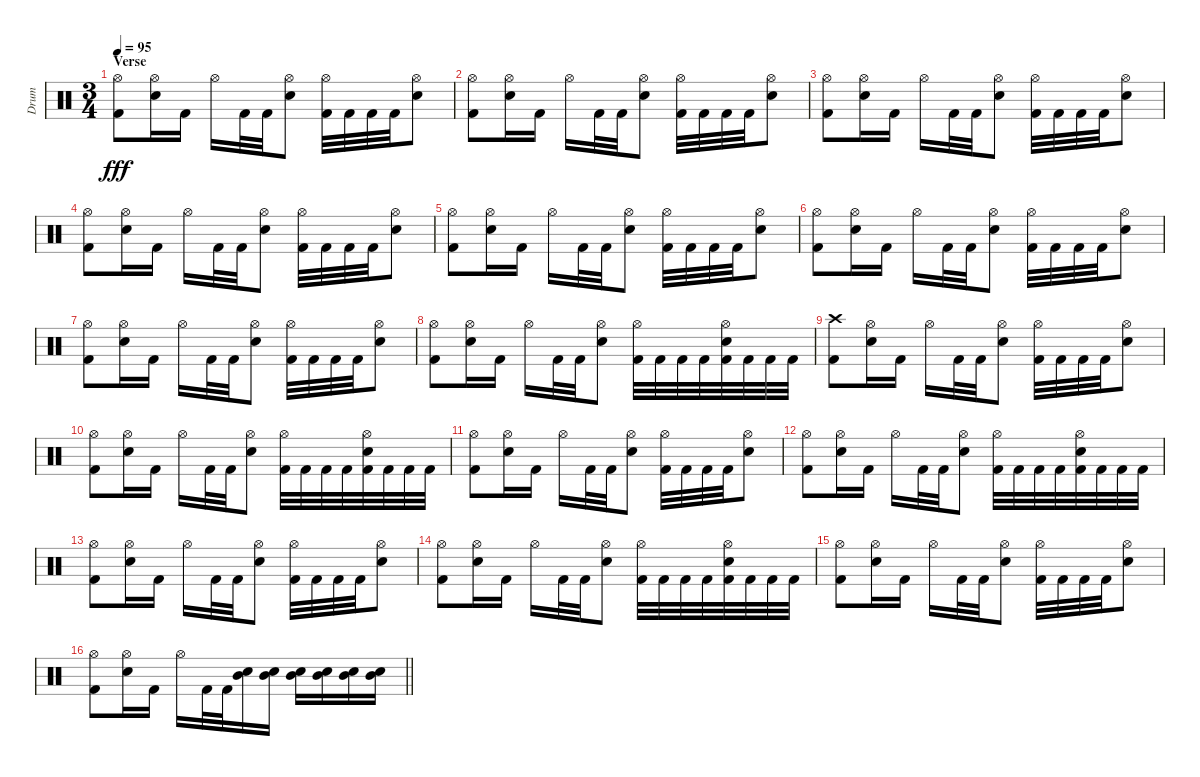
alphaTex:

\track ("Drum" "Drum") {instrument percussion}
\staff {score}
\articulation defaults
\ts (3 4)
\section ("" "Verse")
\tempo 95
\clef neutral
\ks c
("Hi-Hat (open)" "Kick (hit) 2").8{dy fff} ("Hi-Hat (open)" "Electric Snare (hit)").16 "Kick (hit) 2".16 "Hi-Hat (open)".16 "Kick (hit) 2".32 "Kick (hit) 2".32 ("Hi-Hat (open)" "Electric Snare (hit)").8 ("Hi-Hat (open)" "Kick (hit) 2").32 "Kick (hit) 2".32 "Kick (hit) 2".32 "Kick (hit) 2".32 ("Hi-Hat (open)" "Electric Snare (hit)").8 |
("Hi-Hat (open)" "Kick (hit) 2").8 ("Hi-Hat (open)" "Electric Snare (hit)").16 "Kick (hit) 2".16 "Hi-Hat (open)".16 "Kick (hit) 2".32 "Kick (hit) 2".32 ("Hi-Hat (open)" "Electric Snare (hit)").8 ("Hi-Hat (open)" "Kick (hit) 2").32 "Kick (hit) 2".32 "Kick (hit) 2".32 "Kick (hit) 2".32 ("Hi-Hat (open)" "Electric Snare (hit)").8 |
("Hi-Hat (open)" "Kick (hit) 2").8 ("Hi-Hat (open)" "Electric Snare (hit)").16 "Kick (hit) 2".16 "Hi-Hat (open)".16 "Kick (hit) 2".32 "Kick (hit) 2".32 ("Hi-Hat (open)" "Electric Snare (hit)").8 ("Hi-Hat (open)" "Kick (hit) 2").32 "Kick (hit) 2".32 "Kick (hit) 2".32 "Kick (hit) 2".32 ("Hi-Hat (open)" "Electric Snare (hit)").8 |
("Hi-Hat (open)" "Kick (hit) 2").8 ("Hi-Hat (open)" "Electric Snare (hit)").16 "Kick (hit) 2".16 "Hi-Hat (open)".16 "Kick (hit) 2".32 "Kick (hit) 2".32 ("Hi-Hat (open)" "Electric Snare (hit)").8 ("Hi-Hat (open)" "Kick (hit) 2").32 "Kick (hit) 2".32 "Kick (hit) 2".32 "Kick (hit) 2".32 ("Hi-Hat (open)" "Electric Snare (hit)").8 |
("Hi-Hat (open)" "Kick (hit) 2").8 ("Hi-Hat (open)" "Electric Snare (hit)").16 "Kick (hit) 2".16 "Hi-Hat (open)".16 "Kick (hit) 2".32 "Kick (hit) 2".32 ("Hi-Hat (open)" "Electric Snare (hit)").8 ("Hi-Hat (open)" "Kick (hit) 2").32 "Kick (hit) 2".32 "Kick (hit) 2".32 "Kick (hit) 2".32 ("Hi-Hat (open)" "Electric Snare (hit)").8 |
("Hi-Hat (open)" "Kick (hit) 2").8 ("Hi-Hat (open)" "Electric Snare (hit)").16 "Kick (hit) 2".16 "Hi-Hat (open)".16 "Kick (hit) 2".32 "Kick (hit) 2".32 ("Hi-Hat (open)" "Electric Snare (hit)").8 ("Hi-Hat (open)" "Kick (hit) 2").32 "Kick (hit) 2".32 "Kick (hit) 2".32 "Kick (hit) 2".32 ("Hi-Hat (open)" "Electric Snare (hit)").8 |
("Hi-Hat (open)" "Kick (hit) 2").8 ("Hi-Hat (open)" "Electric Snare (hit)").16 "Kick (hit) 2".16 "Hi-Hat (open)".16 "Kick (hit) 2".32 "Kick (hit) 2".32 ("Hi-Hat (open)" "Electric Snare (hit)").8 ("Hi-Hat (open)" "Kick (hit) 2").32 "Kick (hit) 2".32 "Kick (hit) 2".32 "Kick (hit) 2".32 ("Hi-Hat (open)" "Electric Snare (hit)").8 |
("Hi-Hat (open)" "Kick (hit) 2").8 ("Hi-Hat (open)" "Electric Snare (hit)").16 "Kick (hit) 2".16 "Hi-Hat (open)".16 "Kick (hit) 2".32 "Kick (hit) 2".32 ("Hi-Hat (open)" "Electric Snare (hit)").8 ("Hi-Hat (open)" "Kick (hit) 2").32 "Kick (hit) 2".32 "Kick (hit) 2".32 "Kick (hit) 2".32 ("Hi-Hat (open)" "Electric Snare (hit)" "Kick (hit) 2").32 "Kick (hit) 2".32 "Kick (hit) 2".32 "Kick (hit) 2".32 |
("Crash high (hit)" "Kick (hit) 2").8 ("Hi-Hat (open)" "Electric Snare (hit)").16 "Kick (hit) 2".16 "Hi-Hat (open)".16 "Kick (hit) 2".32 "Kick (hit) 2".32 ("Hi-Hat (open)" "Electric Snare (hit)").8 ("Hi-Hat (open)" "Kick (hit) 2").32 "Kick (hit) 2".32 "Kick (hit) 2".32 "Kick (hit) 2".32 ("Hi-Hat (open)" "Electric Snare (hit)").8 |
("Hi-Hat (open)" "Kick (hit) 2").8 ("Hi-Hat (open)" "Electric Snare (hit)").16 "Kick (hit) 2".16 "Hi-Hat (open)".16 "Kick (hit) 2".32 "Kick (hit) 2".32 ("Hi-Hat (open)" "Electric Snare (hit)").8 ("Hi-Hat (open)" "Kick (hit) 2").32 "Kick (hit) 2".32 "Kick (hit) 2".32 "Kick (hit) 2".32 ("Hi-Hat (open)" "Electric Snare (hit)" "Kick (hit) 2").32 "Kick (hit) 2".32 "Kick (hit) 2".32 "Kick (hit) 2".32 |
("Hi-Hat (open)" "Kick (hit) 2").8 ("Hi-Hat (open)" "Electric Snare (hit)").16 "Kick (hit) 2".16 "Hi-Hat (open)".16 "Kick (hit) 2".32 "Kick (hit) 2".32 ("Hi-Hat (open)" "Electric Snare (hit)").8 ("Hi-Hat (open)" "Kick (hit) 2").32 "Kick (hit) 2".32 "Kick (hit) 2".32 "Kick (hit) 2".32 ("Hi-Hat (open)" "Electric Snare (hit)").8 |
("Hi-Hat (open)" "Kick (hit) 2").8 ("Hi-Hat (open)" "Electric Snare (hit)").16 "Kick (hit) 2".16 "Hi-Hat (open)".16 "Kick (hit) 2".32 "Kick (hit) 2".32 ("Hi-Hat (open)" "Electric Snare (hit)").8 ("Hi-Hat (open)" "Kick (hit) 2").32 "Kick (hit) 2".32 "Kick (hit) 2".32 "Kick (hit) 2".32 ("Hi-Hat (open)" "Electric Snare (hit)" "Kick (hit) 2").32 "Kick (hit) 2".32 "Kick (hit) 2".32 "Kick (hit) 2".32 |
("Hi-Hat (open)" "Kick (hit) 2").8 ("Hi-Hat (open)" "Electric Snare (hit)").16 "Kick (hit) 2".16 "Hi-Hat (open)".16 "Kick (hit) 2".32 "Kick (hit) 2".32 ("Hi-Hat (open)" "Electric Snare (hit)").8 ("Hi-Hat (open)" "Kick (hit) 2").32 "Kick (hit) 2".32 "Kick (hit) 2".32 "Kick (hit) 2".32 ("Hi-Hat (open)" "Electric Snare (hit)").8 |
("Hi-Hat (open)" "Kick (hit) 2").8 ("Hi-Hat (open)" "Electric Snare (hit)").16 "Kick (hit) 2".16 "Hi-Hat (open)".16 "Kick (hit) 2".32 "Kick (hit) 2".32 ("Hi-Hat (open)" "Electric Snare (hit)").8 ("Hi-Hat (open)" "Kick (hit) 2").32 "Kick (hit) 2".32 "Kick (hit) 2".32 "Kick (hit) 2".32 ("Hi-Hat (open)" "Electric Snare (hit)" "Kick (hit) 2").32 "Kick (hit) 2".32 "Kick (hit) 2".32 "Kick (hit) 2".32 |
("Hi-Hat (open)" "Kick (hit) 2").8 ("Hi-Hat (open)" "Electric Snare (hit)").16 "Kick (hit) 2".16 "Hi-Hat (open)".16 "Kick (hit) 2".32 "Kick (hit) 2".32 ("Hi-Hat (open)" "Electric Snare (hit)").8 ("Hi-Hat (open)" "Kick (hit) 2").32 "Kick (hit) 2".32 "Kick (hit) 2".32 "Kick (hit) 2".32 ("Hi-Hat (open)" "Electric Snare (hit)").8 |
\barLineRight lightlight
("Hi-Hat (open)" "Kick (hit) 2").8 ("Hi-Hat (open)" "Electric Snare (hit)").16 "Kick (hit) 2".16 "Hi-Hat (open)".16 "Kick (hit) 2".32 "Kick (hit) 2".32 ("Electric Snare (hit)" "Mid Tom (hit)").16 ("Electric Snare (hit)" "Mid Tom (hit)").16 ("Electric Snare (hit)" "Mid Tom (hit)").16 ("Electric Snare (hit)" "Mid Tom (hit)").16 ("Electric Snare (hit)" "Mid Tom (hit)").16 ("Electric Snare (hit)" "Mid Tom (hit)").16
